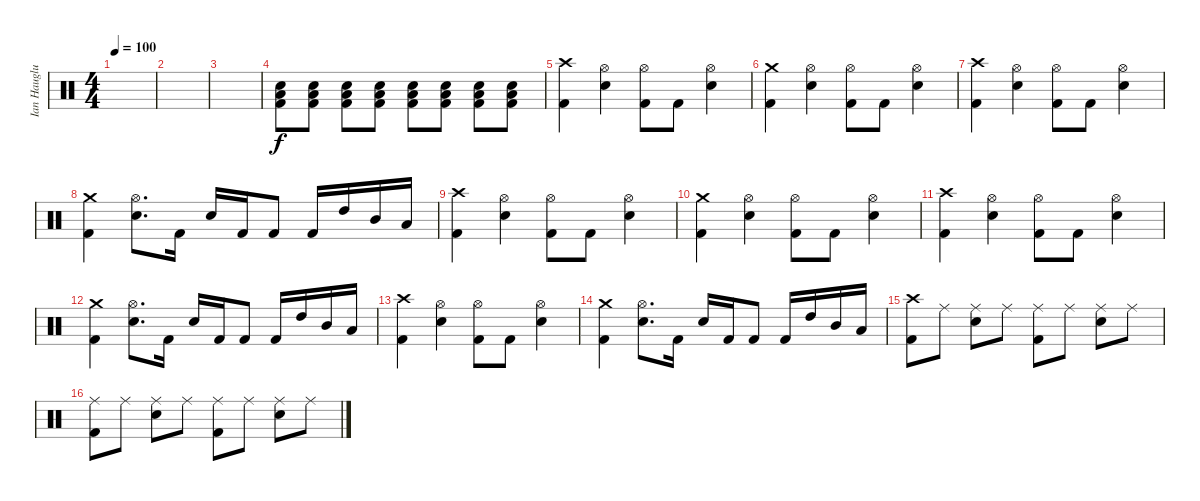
\track ("Ian Hauglund" "Ian Hauglu") {instrument percussion}
\staff {score}
\articulation defaults
\ts (4 4)
\tempo 100
\clef neutral
\ks c
|
|
|
("Electric Snare (hit)" "Kick (hit) 2" "Low Floor Tom (hit)").8{volume 6} ("Electric Snare (hit)" "Kick (hit) 2" "Low Floor Tom (hit)").8{volume 8} ("Electric Snare (hit)" "Kick (hit) 2" "Low Floor Tom (hit)").8{volume 10} ("Electric Snare (hit)" "Kick (hit) 2" "Low Floor Tom (hit)").8{volume 11} ("Electric Snare (hit)" "Kick (hit) 2" "Low Floor Tom (hit)").8{volume 13} ("Electric Snare (hit)" "Kick (hit) 2" "Low Floor Tom (hit)").8{volume 15} ("Electric Snare (hit)" "Kick (hit) 2" "Low Floor Tom (hit)").8{volume 16} ("Electric Snare (hit)" "Kick (hit) 2" "Low Floor Tom (hit)").8 |
("Kick (hit) 2" "Crash high (hit)").4 ("Electric Snare (hit)" "Hi-Hat (open)").4 ("Kick (hit) 2" "Hi-Hat (open)").8 "Kick (hit) 2".8 ("Electric Snare (hit)" "Hi-Hat (open)").4 |
("Kick (hit) 2" "Crash medium (hit)").4 ("Electric Snare (hit)" "Hi-Hat (open)").4 ("Kick (hit) 2" "Hi-Hat (open)").8 "Kick (hit) 2".8 ("Electric Snare (hit)" "Hi-Hat (open)").4 |
("Kick (hit) 2" "Crash high (hit)").4 ("Electric Snare (hit)" "Hi-Hat (open)").4 ("Kick (hit) 2" "Hi-Hat (open)").8 "Kick (hit) 2".8 ("Electric Snare (hit)" "Hi-Hat (open)").4 |
("Kick (hit) 2" "Crash medium (hit)").4 ("Electric Snare (hit)" "Hi-Hat (open)").8{d} "Kick (hit) 2".16 "Electric Snare (hit)".16 "Kick (hit) 2".16 "Kick (hit) 2".8 "Kick (hit) 2".16 "High Tom (hit)".16 "Mid Tom (hit)".16 "Low Tom (hit)".16 |
("Kick (hit) 2" "Crash high (hit)").4 ("Electric Snare (hit)" "Hi-Hat (open)").4 ("Kick (hit) 2" "Hi-Hat (open)").8 "Kick (hit) 2".8 ("Electric Snare (hit)" "Hi-Hat (open)").4 |
("Kick (hit) 2" "Crash medium (hit)").4 ("Electric Snare (hit)" "Hi-Hat (open)").4 ("Kick (hit) 2" "Hi-Hat (open)").8 "Kick (hit) 2".8 ("Electric Snare (hit)" "Hi-Hat (open)").4 |
("Kick (hit) 2" "Crash high (hit)").4 ("Electric Snare (hit)" "Hi-Hat (open)").4 ("Kick (hit) 2" "Hi-Hat (open)").8 "Kick (hit) 2".8 ("Electric Snare (hit)" "Hi-Hat (open)").4 |
("Kick (hit) 2" "Crash medium (hit)").4 ("Electric Snare (hit)" "Hi-Hat (open)").8{d} "Kick (hit) 2".16 "Electric Snare (hit)".16 "Kick (hit) 2".16 "Kick (hit) 2".8 "Kick (hit) 2".16 "High Tom (hit)".16 "Mid Tom (hit)".16 "Low Tom (hit)".16 |
("Kick (hit) 2" "Crash high (hit)").4 ("Electric Snare (hit)" "Hi-Hat (open)").4 ("Kick (hit) 2" "Hi-Hat (open)").8 "Kick (hit) 2".8 ("Electric Snare (hit)" "Hi-Hat (open)").4 |
("Kick (hit) 2" "Crash medium (hit)").4 ("Electric Snare (hit)" "Hi-Hat (open)").8{d} "Kick (hit) 2".16 "Electric Snare (hit)".16 "Kick (hit) 2".16 "Kick (hit) 2".8 "Kick (hit) 2".16 "High Tom (hit)".16 "Mid Tom (hit)".16 "Low Tom (hit)".16 |
("Kick (hit) 2" "Crash high (hit)").8 "Ride (middle)".8 ("Electric Snare (hit)" "Ride (middle)").8 "Ride (middle)".8 ("Kick (hit) 2" "Ride (middle)").8 "Ride (middle)".8 ("Electric Snare (hit)" "Ride (middle)").8 "Ride (middle)".8 |
("Kick (hit) 2" "Ride (middle)").8 "Ride (middle)".8 ("Electric Snare (hit)" "Ride (middle)").8 "Ride (middle)".8 ("Kick (hit) 2" "Ride (middle)").8 "Ride (middle)".8 ("Electric Snare (hit)" "Ride (middle)").8 "Ride (middle)".8
